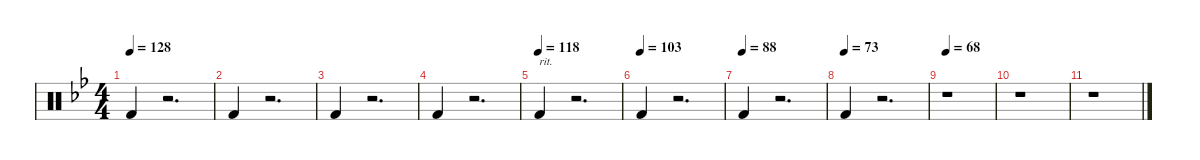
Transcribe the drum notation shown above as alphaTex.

\defaultSystemsLayout 4
\hideDynamics
\bracketExtendMode nobrackets
\singleTrackTrackNamePolicy hidden
\multiTrackTrackNamePolicy hidden
\firstSystemTrackNameMode fullname
\firstSystemTrackNameOrientation horizontal
\otherSystemsTrackNameOrientation horizontal
\track ("Drums" "drm.") {instrument percussion}
\staff {score}
\articulation defaults
\ts (4 4)
\tempo 128
\clef neutral
\ks bb "Kick (hit) 2"{acc forcenatural}.4{dy f beam Up}
r.2{d beam Up} |
"Kick (hit) 2"{acc forcenatural}.4{beam Up} r.2{d beam Up} |
"Kick (hit) 2"{acc forcenatural}.4{beam Up} r.2{d beam Up} |
"Kick (hit) 2"{acc forcenatural}.4{beam Up} r.2{d beam Up} |
\tempo (118)
"Kick (hit) 2"{acc forcenatural}.4{txt "rit." beam Up} r.2{d beam Up} |
\tempo (103)
"Kick (hit) 2"{acc forcenatural}.4{beam Up} r.2{d beam Up} |
\tempo (88)
"Kick (hit) 2"{acc forcenatural}.4{beam Up} r.2{d beam Up} |
\tempo (73)
"Kick (hit) 2"{acc forcenatural}.4{beam Up} r.2{d beam Up} |
\tempo 68
r.1{beam Down} |
r.1{beam Down} |
r.1{beam Down}
